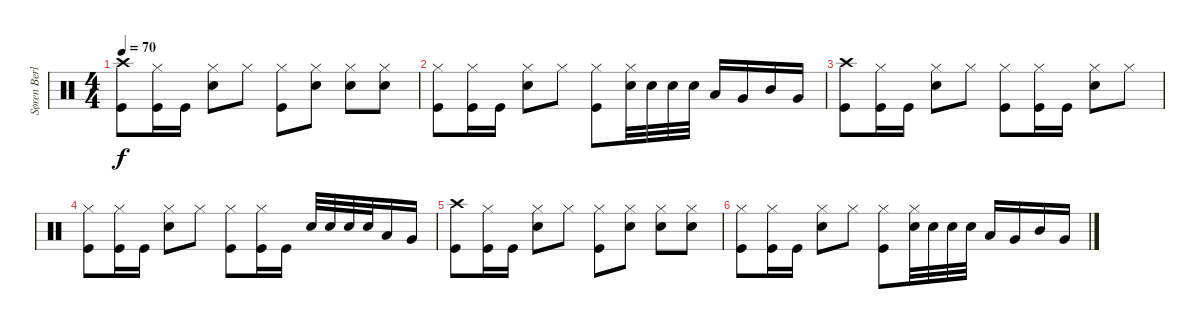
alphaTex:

\track ("Søren Berlev" "Søren Berl") {instrument percussion}
\staff {score}
\articulation defaults
\ts (4 4)
\tempo 70
\clef neutral
\ks c
("Crash high (hit)" "Kick (hit)").8{dy f} ("Hi-Hat (closed)" "Kick (hit)").16 "Kick (hit)".16 ("Hi-Hat (closed)" "Snare (hit) 2").8 "Hi-Hat (closed)".8 ("Hi-Hat (closed)" "Kick (hit)").8 ("Hi-Hat (closed)" "Snare (hit) 2").8 ("Hi-Hat (closed)" "Snare (hit) 2").8 ("Hi-Hat (closed)" "Snare (hit) 2").8 |
("Hi-Hat (closed)" "Kick (hit)").8 ("Hi-Hat (closed)" "Kick (hit)").16 "Kick (hit)".16 ("Hi-Hat (closed)" "Snare (hit) 2").8 "Hi-Hat (closed)".8 ("Hi-Hat (closed)" "Kick (hit)").8 ("Hi-Hat (closed)" "Snare (hit) 2").32 "Snare (hit) 2".32 "Snare (hit) 2".32 "Snare (hit) 2".32 "Low Tom (hit)".16 "Very Low Tom (hit)".16 "Mid Tom (hit)".16 "Very Low Tom (hit)".16 |
("Crash high (hit)" "Kick (hit)").8 ("Hi-Hat (closed)" "Kick (hit)").16 "Kick (hit)".16 ("Hi-Hat (closed)" "Snare (hit) 2").8 "Hi-Hat (closed)".8 ("Hi-Hat (closed)" "Kick (hit)").8 ("Hi-Hat (closed)" "Kick (hit)").16 "Kick (hit)".16 ("Hi-Hat (closed)" "Snare (hit) 2").8 "Hi-Hat (closed)".8 |
("Hi-Hat (closed)" "Kick (hit)").8 ("Hi-Hat (closed)" "Kick (hit)").16 "Kick (hit)".16 ("Hi-Hat (closed)" "Snare (hit) 2").8 "Hi-Hat (closed)".8 ("Hi-Hat (closed)" "Kick (hit)").8 ("Hi-Hat (closed)" "Kick (hit)").16 "Kick (hit)".16 "Snare (hit) 2".32 "Snare (hit) 2".32 "Snare (hit) 2".32 "Snare (hit) 2".32 "Low Tom (hit)".16 "Very Low Tom (hit)".16 |
("Crash high (hit)" "Kick (hit)").8 ("Hi-Hat (closed)" "Kick (hit)").16 "Kick (hit)".16 ("Hi-Hat (closed)" "Snare (hit) 2").8 "Hi-Hat (closed)".8 ("Hi-Hat (closed)" "Kick (hit)").8 ("Hi-Hat (closed)" "Snare (hit) 2").8 ("Hi-Hat (closed)" "Snare (hit) 2").8 ("Hi-Hat (closed)" "Snare (hit) 2").8 |
("Hi-Hat (closed)" "Kick (hit)").8 ("Hi-Hat (closed)" "Kick (hit)").16 "Kick (hit)".16 ("Hi-Hat (closed)" "Snare (hit) 2").8 "Hi-Hat (closed)".8 ("Hi-Hat (closed)" "Kick (hit)").8 ("Hi-Hat (closed)" "Snare (hit) 2").32 "Snare (hit) 2".32 "Snare (hit) 2".32 "Snare (hit) 2".32 "Low Tom (hit)".16 "Very Low Tom (hit)".16 "Mid Tom (hit)".16 "Very Low Tom (hit)".16
